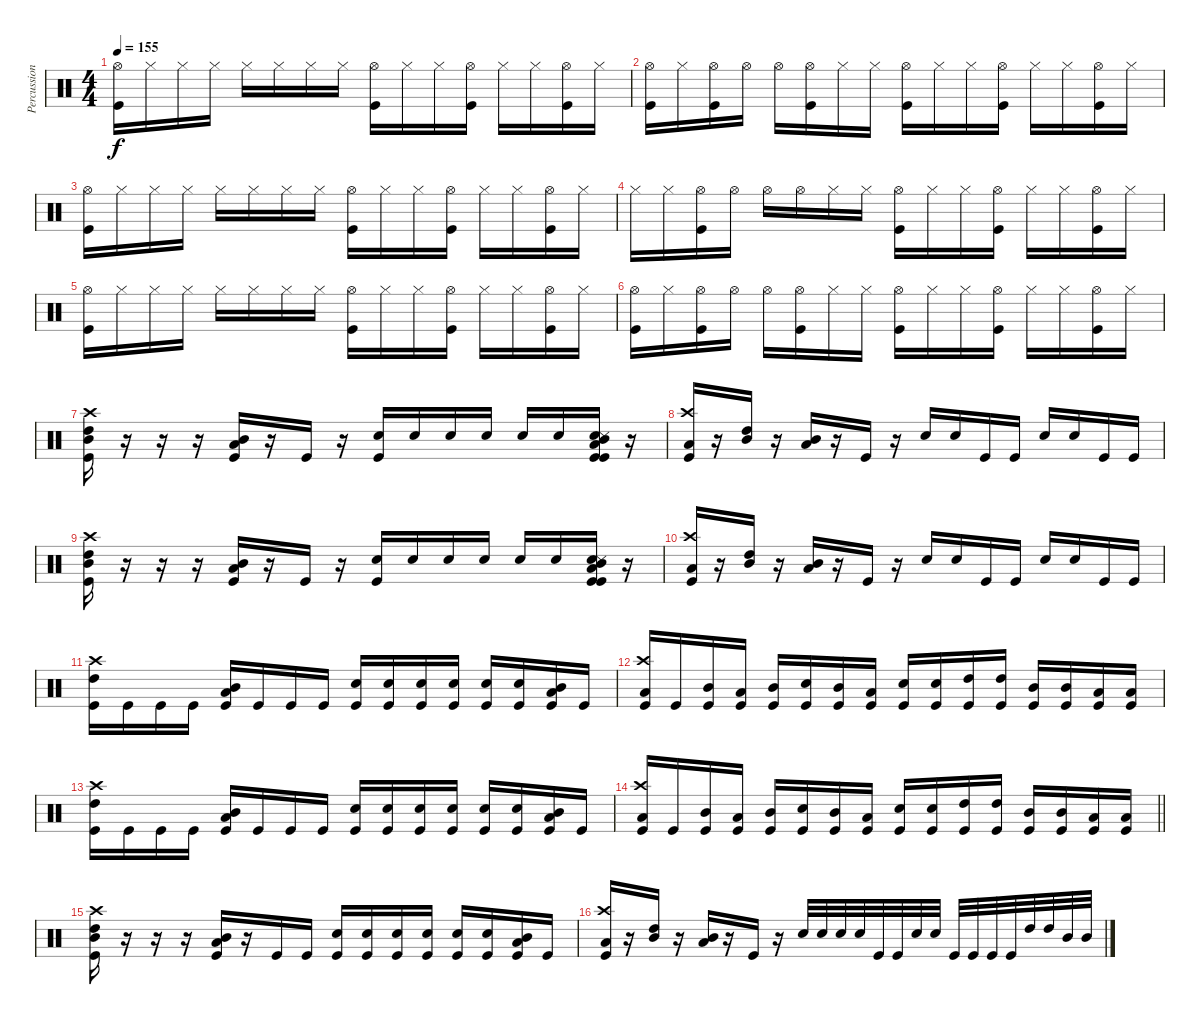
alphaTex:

\track ("Percussion" "Percussion") {instrument percussion}
\staff {score}
\articulation defaults
\ts (4 4)
\tempo 155
\clef neutral
\ks c
("Hi-Hat (open)" "Kick (hit)").16{dy f} "Hi-Hat (closed)".16 "Hi-Hat (closed)".16 "Hi-Hat (closed)".16 "Hi-Hat (closed)".16 "Hi-Hat (closed)".16 "Hi-Hat (closed)".16 "Hi-Hat (closed)".16 ("Hi-Hat (open)" "Kick (hit)").16 "Hi-Hat (closed)".16 "Hi-Hat (closed)".16 ("Hi-Hat (open)" "Kick (hit)").16 "Hi-Hat (closed)".16 "Hi-Hat (closed)".16 ("Hi-Hat (open)" "Kick (hit)").16 "Hi-Hat (closed)".16 |
("Hi-Hat (open)" "Kick (hit)").16 "Hi-Hat (closed)".16 ("Hi-Hat (open)" "Kick (hit)").16 "Hi-Hat (open)".16 "Hi-Hat (open)".16 ("Hi-Hat (open)" "Kick (hit)").16 "Hi-Hat (closed)".16 "Hi-Hat (closed)".16 ("Hi-Hat (open)" "Kick (hit)").16 "Hi-Hat (closed)".16 "Hi-Hat (closed)".16 ("Hi-Hat (open)" "Kick (hit)").16 "Hi-Hat (closed)".16 "Hi-Hat (closed)".16 ("Hi-Hat (open)" "Kick (hit)").16 "Hi-Hat (closed)".16 |
("Hi-Hat (open)" "Kick (hit)").16 "Hi-Hat (closed)".16 "Hi-Hat (closed)".16 "Hi-Hat (closed)".16 "Hi-Hat (closed)".16 "Hi-Hat (closed)".16 "Hi-Hat (closed)".16 "Hi-Hat (closed)".16 ("Hi-Hat (open)" "Kick (hit)").16 "Hi-Hat (closed)".16 "Hi-Hat (closed)".16 ("Hi-Hat (open)" "Kick (hit)").16 "Hi-Hat (closed)".16 "Hi-Hat (closed)".16 ("Hi-Hat (open)" "Kick (hit)").16 "Hi-Hat (closed)".16 |
"Hi-Hat (closed)".16 "Hi-Hat (closed)".16 ("Hi-Hat (open)" "Kick (hit)").16 "Hi-Hat (open)".16 "Hi-Hat (open)".16 "Hi-Hat (open)".16 "Hi-Hat (closed)".16 "Hi-Hat (closed)".16 ("Hi-Hat (open)" "Kick (hit)").16 "Hi-Hat (closed)".16 "Hi-Hat (closed)".16 ("Hi-Hat (open)" "Kick (hit)").16 "Hi-Hat (closed)".16 "Hi-Hat (closed)".16 ("Hi-Hat (open)" "Kick (hit)").16 "Hi-Hat (closed)".16 |
("Hi-Hat (open)" "Kick (hit)").16 "Hi-Hat (closed)".16 "Hi-Hat (closed)".16 "Hi-Hat (closed)".16 "Hi-Hat (closed)".16 "Hi-Hat (closed)".16 "Hi-Hat (closed)".16 "Hi-Hat (closed)".16 ("Hi-Hat (open)" "Kick (hit)").16 "Hi-Hat (closed)".16 "Hi-Hat (closed)".16 ("Hi-Hat (open)" "Kick (hit)").16 "Hi-Hat (closed)".16 "Hi-Hat (closed)".16 ("Hi-Hat (open)" "Kick (hit)").16 "Hi-Hat (closed)".16 |
("Hi-Hat (open)" "Kick (hit)").16 "Hi-Hat (closed)".16 ("Hi-Hat (open)" "Kick (hit)").16 "Hi-Hat (open)".16 "Hi-Hat (open)".16 ("Hi-Hat (open)" "Kick (hit)").16 "Hi-Hat (closed)".16 "Hi-Hat (closed)".16 ("Hi-Hat (open)" "Kick (hit)").16 "Hi-Hat (closed)".16 "Hi-Hat (closed)".16 ("Hi-Hat (open)" "Kick (hit)").16 "Hi-Hat (closed)".16 "Hi-Hat (closed)".16 ("Hi-Hat (open)" "Kick (hit)").16 "Hi-Hat (closed)".16 |
("Kick (hit)" "High Tom (hit)" "Mid Tom (hit)" "Crash high (hit)").16 r.16 r.16 r.16 ("Kick (hit)" "Mid Tom (hit)" "Low Tom (hit)").16 r.16 "Kick (hit)".16 r.16 ("Snare (hit) 2" "Kick (hit)").16 "Snare (hit) 2".16 "Snare (hit) 2".16 "Snare (hit) 2".16 "Snare (hit) 2".16 "Snare (hit) 2".16 ("Kick (hit)" "Mid Tom (hit)" "Low Tom (hit)" "Snare (hit) 2" "Snare (side stick) 3" "Kick (hit)").16 r.16 |
("Kick (hit)" "Crash high (hit)" "Low Tom (hit)").16 r.16 ("High Tom (hit)" "Mid Tom (hit)").16 r.16 ("Mid Tom (hit)" "Low Tom (hit)").16 r.16 "Kick (hit)".16 r.16 "Snare (hit) 2".16 "Snare (hit) 2".16 "Kick (hit)".16 "Kick (hit)".16 "Snare (hit) 2".16 "Snare (hit) 2".16 "Kick (hit)".16 "Kick (hit)".16 |
("Kick (hit)" "High Tom (hit)" "Mid Tom (hit)" "Crash high (hit)").16 r.16 r.16 r.16 ("Kick (hit)" "Mid Tom (hit)" "Low Tom (hit)").16 r.16 "Kick (hit)".16 r.16 ("Snare (hit) 2" "Kick (hit)").16 "Snare (hit) 2".16 "Snare (hit) 2".16 "Snare (hit) 2".16 "Snare (hit) 2".16 "Snare (hit) 2".16 ("Kick (hit)" "Mid Tom (hit)" "Low Tom (hit)" "Snare (hit) 2" "Snare (side stick) 3" "Kick (hit)").16 r.16 |
("Kick (hit)" "Crash high (hit)" "Low Tom (hit)").16 r.16 ("High Tom (hit)" "Mid Tom (hit)").16 r.16 ("Mid Tom (hit)" "Low Tom (hit)").16 r.16 "Kick (hit)".16 r.16 "Snare (hit) 2".16 "Snare (hit) 2".16 "Kick (hit)".16 "Kick (hit)".16 "Snare (hit) 2".16 "Snare (hit) 2".16 "Kick (hit)".16 "Kick (hit)".16 |
("Kick (hit)" "Crash high (hit)" "High Tom (hit)").16 "Kick (hit)".16 "Kick (hit)".16 "Kick (hit)".16 ("Kick (hit)" "Mid Tom (hit)" "Low Tom (hit)").16 "Kick (hit)".16 "Kick (hit)".16 "Kick (hit)".16 ("Kick (hit)" "Snare (hit) 2").16 ("Kick (hit)" "Snare (hit) 2").16 ("Kick (hit)" "Snare (hit) 2").16 ("Kick (hit)" "Snare (hit) 2").16 ("Kick (hit)" "Snare (hit) 2").16 ("Kick (hit)" "Snare (hit) 2").16 ("Kick (hit)" "Mid Tom (hit)" "Low Tom (hit)").16 "Kick (hit)".16 |
("Kick (hit)" "Crash high (hit)" "Low Tom (hit)").16 "Kick (hit)".16 ("Kick (hit)" "Mid Tom (hit)").16 ("Kick (hit)" "Low Tom (hit)").16 ("Kick (hit)" "Mid Tom (hit)").16 ("Kick (hit)" "Snare (hit) 2").16 ("Kick (hit)" "Mid Tom (hit)").16 ("Kick (hit)" "Low Tom (hit)").16 ("Kick (hit)" "Snare (hit) 2").16 ("Kick (hit)" "Snare (hit) 2").16 ("Kick (hit)" "High Tom (hit)").16 ("Kick (hit)" "High Tom (hit)").16 ("Kick (hit)" "Mid Tom (hit)").16 ("Kick (hit)" "Mid Tom (hit)").16 ("Kick (hit)" "Low Tom (hit)").16 ("Kick (hit)" "Low Tom (hit)").16 |
("Kick (hit)" "Crash high (hit)" "High Tom (hit)").16 "Kick (hit)".16 "Kick (hit)".16 "Kick (hit)".16 ("Kick (hit)" "Mid Tom (hit)" "Low Tom (hit)").16 "Kick (hit)".16 "Kick (hit)".16 "Kick (hit)".16 ("Kick (hit)" "Snare (hit) 2").16 ("Kick (hit)" "Snare (hit) 2").16 ("Kick (hit)" "Snare (hit) 2").16 ("Kick (hit)" "Snare (hit) 2").16 ("Kick (hit)" "Snare (hit) 2").16 ("Kick (hit)" "Snare (hit) 2").16 ("Kick (hit)" "Mid Tom (hit)" "Low Tom (hit)").16 "Kick (hit)".16 |
\barLineRight lightlight
("Kick (hit)" "Crash high (hit)" "Low Tom (hit)").16 "Kick (hit)".16 ("Kick (hit)" "Mid Tom (hit)").16 ("Kick (hit)" "Low Tom (hit)").16 ("Kick (hit)" "Mid Tom (hit)").16 ("Kick (hit)" "Snare (hit) 2").16 ("Kick (hit)" "Mid Tom (hit)").16 ("Kick (hit)" "Low Tom (hit)").16 ("Kick (hit)" "Snare (hit) 2").16 ("Kick (hit)" "Snare (hit) 2").16 ("Kick (hit)" "High Tom (hit)").16 ("Kick (hit)" "High Tom (hit)").16 ("Kick (hit)" "Mid Tom (hit)").16 ("Kick (hit)" "Mid Tom (hit)").16 ("Kick (hit)" "Low Tom (hit)").16 ("Kick (hit)" "Low Tom (hit)").16 |
("Kick (hit)" "High Tom (hit)" "Mid Tom (hit)" "Crash high (hit)").16 r.16 r.16 r.16 ("Kick (hit)" "Mid Tom (hit)" "Low Tom (hit)").16 r.16 "Kick (hit)".16 "Kick (hit)".16 ("Kick (hit)" "Snare (hit) 2").16 ("Kick (hit)" "Snare (hit) 2").16 ("Kick (hit)" "Snare (hit) 2").16 ("Kick (hit)" "Snare (hit) 2").16 ("Kick (hit)" "Snare (hit) 2").16 ("Kick (hit)" "Snare (hit) 2").16 ("Kick (hit)" "Mid Tom (hit)" "Low Tom (hit)").16 "Kick (hit)".16 |
("Kick (hit)" "Crash high (hit)" "Low Tom (hit)").16 r.16 ("High Tom (hit)" "Mid Tom (hit)").16 r.16 ("Mid Tom (hit)" "Low Tom (hit)").16 r.16 "Kick (hit)".16 r.16 "Snare (hit) 2".32 "Snare (hit) 2".32 "Snare (hit) 2".32 "Snare (hit) 2".32 "Kick (hit)".32 "Kick (hit)".32 "Snare (hit) 2".32 "Snare (hit) 2".32 "Kick (hit)".32 "Kick (hit)".32 "Kick (hit)".32 "Kick (hit)".32 "High Tom (hit)".32 "High Tom (hit)".32 "Mid Tom (hit)".32 "Mid Tom (hit)".32
